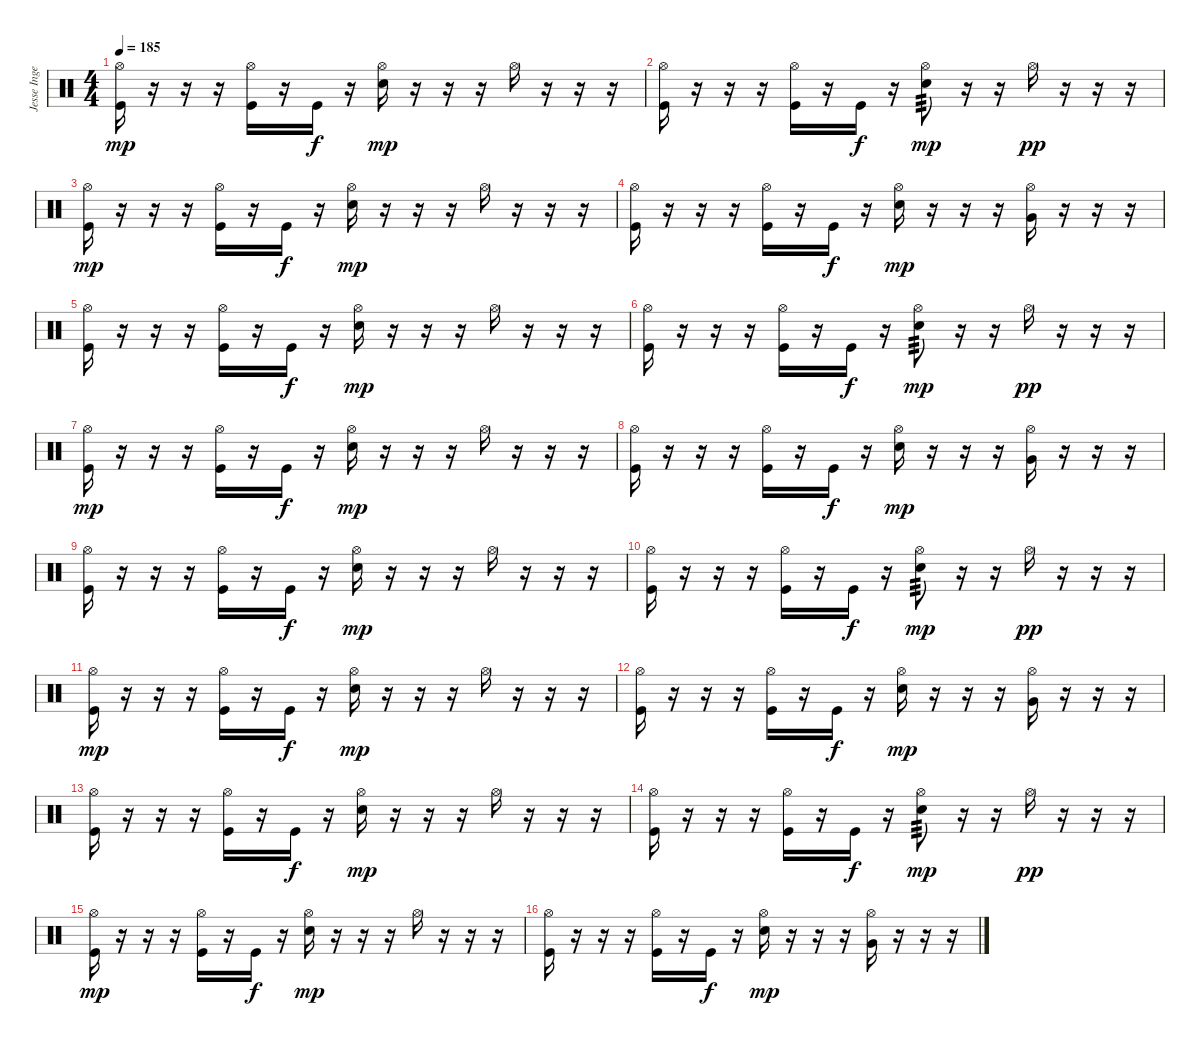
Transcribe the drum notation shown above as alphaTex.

\track ("Jesse Ingelevics" "Jesse Inge") {instrument percussion}
\staff {score}
\articulation defaults
\ts (4 4)
\tempo 185
\clef neutral
\ks c
("Hi-Hat (open)" "Kick (hit)").16{dy mp} r.16 r.16 r.16 ("Hi-Hat (open)" "Kick (hit)").16 r.16 "Kick (hit)".16{dy f} r.16 ("Hi-Hat (open)" "Electric Snare (hit)").16{dy mp} r.16 r.16 r.16 "Hi-Hat (open)".16 r.16 r.16 r.16 |
("Hi-Hat (open)" "Kick (hit)").16 r.16 r.16 r.16 ("Hi-Hat (open)" "Kick (hit)").16 r.16 "Kick (hit)".16{dy f} r.16 ("Hi-Hat (open)" "Electric Snare (hit)").8{tp 3 dy mp} r.16 r.16 "Hi-Hat (open)".16{dy pp} r.16 r.16 r.16 |
("Hi-Hat (open)" "Kick (hit)").16{dy mp} r.16 r.16 r.16 ("Hi-Hat (open)" "Kick (hit)").16 r.16 "Kick (hit)".16{dy f} r.16 ("Hi-Hat (open)" "Electric Snare (hit)").16{dy mp} r.16 r.16 r.16 "Hi-Hat (open)".16 r.16 r.16 r.16 |
("Hi-Hat (open)" "Kick (hit)").16 r.16 r.16 r.16 ("Hi-Hat (open)" "Kick (hit)").16 r.16 "Kick (hit)".16{dy f} r.16 ("Hi-Hat (open)" "Electric Snare (hit)").16{dy mp} r.16 r.16 r.16 ("Hi-Hat (open)" "Very Low Tom (hit)").16 r.16 r.16 r.16 |
("Hi-Hat (open)" "Kick (hit)").16 r.16 r.16 r.16 ("Hi-Hat (open)" "Kick (hit)").16 r.16 "Kick (hit)".16{dy f} r.16 ("Hi-Hat (open)" "Electric Snare (hit)").16{dy mp} r.16 r.16 r.16 "Hi-Hat (open)".16 r.16 r.16 r.16 |
("Hi-Hat (open)" "Kick (hit)").16 r.16 r.16 r.16 ("Hi-Hat (open)" "Kick (hit)").16 r.16 "Kick (hit)".16{dy f} r.16 ("Hi-Hat (open)" "Electric Snare (hit)").8{tp 3 dy mp} r.16 r.16 "Hi-Hat (open)".16{dy pp} r.16 r.16 r.16 |
("Hi-Hat (open)" "Kick (hit)").16{dy mp} r.16 r.16 r.16 ("Hi-Hat (open)" "Kick (hit)").16 r.16 "Kick (hit)".16{dy f} r.16 ("Hi-Hat (open)" "Electric Snare (hit)").16{dy mp} r.16 r.16 r.16 "Hi-Hat (open)".16 r.16 r.16 r.16 |
("Hi-Hat (open)" "Kick (hit)").16 r.16 r.16 r.16 ("Hi-Hat (open)" "Kick (hit)").16 r.16 "Kick (hit)".16{dy f} r.16 ("Hi-Hat (open)" "Electric Snare (hit)").16{dy mp} r.16 r.16 r.16 ("Hi-Hat (open)" "Very Low Tom (hit)").16 r.16 r.16 r.16 |
("Hi-Hat (open)" "Kick (hit)").16 r.16 r.16 r.16 ("Hi-Hat (open)" "Kick (hit)").16 r.16 "Kick (hit)".16{dy f} r.16 ("Hi-Hat (open)" "Electric Snare (hit)").16{dy mp} r.16 r.16 r.16 "Hi-Hat (open)".16 r.16 r.16 r.16 |
("Hi-Hat (open)" "Kick (hit)").16 r.16 r.16 r.16 ("Hi-Hat (open)" "Kick (hit)").16 r.16 "Kick (hit)".16{dy f} r.16 ("Hi-Hat (open)" "Electric Snare (hit)").8{tp 3 dy mp} r.16 r.16 "Hi-Hat (open)".16{dy pp} r.16 r.16 r.16 |
("Hi-Hat (open)" "Kick (hit)").16{dy mp} r.16 r.16 r.16 ("Hi-Hat (open)" "Kick (hit)").16 r.16 "Kick (hit)".16{dy f} r.16 ("Hi-Hat (open)" "Electric Snare (hit)").16{dy mp} r.16 r.16 r.16 "Hi-Hat (open)".16 r.16 r.16 r.16 |
("Hi-Hat (open)" "Kick (hit)").16 r.16 r.16 r.16 ("Hi-Hat (open)" "Kick (hit)").16 r.16 "Kick (hit)".16{dy f} r.16 ("Hi-Hat (open)" "Electric Snare (hit)").16{dy mp} r.16 r.16 r.16 ("Hi-Hat (open)" "Very Low Tom (hit)").16 r.16 r.16 r.16 |
("Hi-Hat (open)" "Kick (hit)").16 r.16 r.16 r.16 ("Hi-Hat (open)" "Kick (hit)").16 r.16 "Kick (hit)".16{dy f} r.16 ("Hi-Hat (open)" "Electric Snare (hit)").16{dy mp} r.16 r.16 r.16 "Hi-Hat (open)".16 r.16 r.16 r.16 |
("Hi-Hat (open)" "Kick (hit)").16 r.16 r.16 r.16 ("Hi-Hat (open)" "Kick (hit)").16 r.16 "Kick (hit)".16{dy f} r.16 ("Hi-Hat (open)" "Electric Snare (hit)").8{tp 3 dy mp} r.16 r.16 "Hi-Hat (open)".16{dy pp} r.16 r.16 r.16 |
("Hi-Hat (open)" "Kick (hit)").16{dy mp} r.16 r.16 r.16 ("Hi-Hat (open)" "Kick (hit)").16 r.16 "Kick (hit)".16{dy f} r.16 ("Hi-Hat (open)" "Electric Snare (hit)").16{dy mp} r.16 r.16 r.16 "Hi-Hat (open)".16 r.16 r.16 r.16 |
("Hi-Hat (open)" "Kick (hit)").16 r.16 r.16 r.16 ("Hi-Hat (open)" "Kick (hit)").16 r.16 "Kick (hit)".16{dy f} r.16 ("Hi-Hat (open)" "Electric Snare (hit)").16{dy mp} r.16 r.16 r.16 ("Hi-Hat (open)" "Very Low Tom (hit)").16 r.16 r.16 r.16
